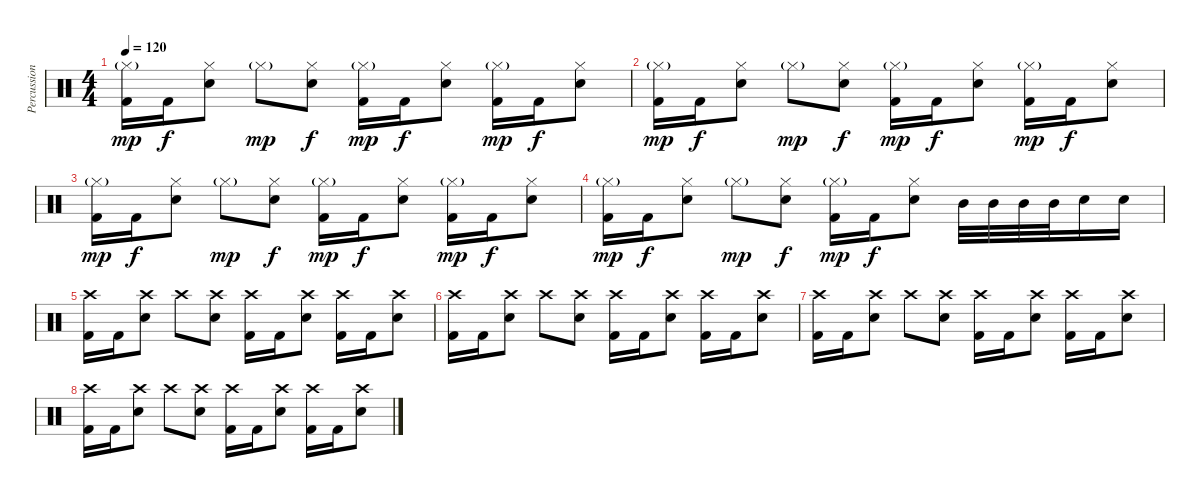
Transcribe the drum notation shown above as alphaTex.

\track ("Percussion" "Percussion") {instrument percussion}
\staff {score}
\articulation defaults
\ts (4 4)
\tempo 120
\clef neutral
\ks c
("Hi-Hat (closed)"{g} "Kick (hit) 2").16{dy mp} "Kick (hit) 2".16{dy f} ("Hi-Hat (closed)" "Electric Snare (hit)").8 "Hi-Hat (closed)"{g}.8{dy mp} ("Hi-Hat (closed)" "Electric Snare (hit)").8{dy f} ("Hi-Hat (closed)"{g} "Kick (hit) 2").16{dy mp} "Kick (hit) 2".16{dy f} ("Hi-Hat (closed)" "Electric Snare (hit)").8 ("Hi-Hat (closed)"{g} "Kick (hit) 2").16{dy mp} "Kick (hit) 2".16{dy f} ("Hi-Hat (closed)" "Electric Snare (hit)").8 |
("Hi-Hat (closed)"{g} "Kick (hit) 2").16{dy mp} "Kick (hit) 2".16{dy f} ("Hi-Hat (closed)" "Electric Snare (hit)").8 "Hi-Hat (closed)"{g}.8{dy mp} ("Hi-Hat (closed)" "Electric Snare (hit)").8{dy f} ("Hi-Hat (closed)"{g} "Kick (hit) 2").16{dy mp} "Kick (hit) 2".16{dy f} ("Hi-Hat (closed)" "Electric Snare (hit)").8 ("Hi-Hat (closed)"{g} "Kick (hit) 2").16{dy mp} "Kick (hit) 2".16{dy f} ("Hi-Hat (closed)" "Electric Snare (hit)").8 |
("Hi-Hat (closed)"{g} "Kick (hit) 2").16{dy mp} "Kick (hit) 2".16{dy f} ("Hi-Hat (closed)" "Electric Snare (hit)").8 "Hi-Hat (closed)"{g}.8{dy mp} ("Hi-Hat (closed)" "Electric Snare (hit)").8{dy f} ("Hi-Hat (closed)"{g} "Kick (hit) 2").16{dy mp} "Kick (hit) 2".16{dy f} ("Hi-Hat (closed)" "Electric Snare (hit)").8 ("Hi-Hat (closed)"{g} "Kick (hit) 2").16{dy mp} "Kick (hit) 2".16{dy f} ("Hi-Hat (closed)" "Electric Snare (hit)").8 |
("Hi-Hat (closed)"{g} "Kick (hit) 2").16{dy mp} "Kick (hit) 2".16{dy f} ("Hi-Hat (closed)" "Electric Snare (hit)").8 "Hi-Hat (closed)"{g}.8{dy mp} ("Hi-Hat (closed)" "Electric Snare (hit)").8{dy f} ("Hi-Hat (closed)"{g} "Kick (hit) 2").16{dy mp} "Kick (hit) 2".16{dy f} ("Hi-Hat (closed)" "Electric Snare (hit)").8 "Mid Tom (hit)".32 "Mid Tom (hit)".32 "Mid Tom (hit)".32 "Mid Tom (hit)".32 "Electric Snare (hit)".16 "Electric Snare (hit)".16 |
("Crash high (hit)" "Kick (hit) 2").16 "Kick (hit) 2".16 ("Crash high (hit)" "Electric Snare (hit)").8 "Crash high (hit)".8 ("Crash high (hit)" "Electric Snare (hit)").8 ("Crash high (hit)" "Kick (hit) 2").16 "Kick (hit) 2".16 ("Crash high (hit)" "Electric Snare (hit)").8 ("Crash high (hit)" "Kick (hit) 2").16 "Kick (hit) 2".16 ("Crash high (hit)" "Electric Snare (hit)").8 |
("Crash high (hit)" "Kick (hit) 2").16 "Kick (hit) 2".16 ("Crash high (hit)" "Electric Snare (hit)").8 "Crash high (hit)".8 ("Crash high (hit)" "Electric Snare (hit)").8 ("Crash high (hit)" "Kick (hit) 2").16 "Kick (hit) 2".16 ("Crash high (hit)" "Electric Snare (hit)").8 ("Crash high (hit)" "Kick (hit) 2").16 "Kick (hit) 2".16 ("Crash high (hit)" "Electric Snare (hit)").8 |
("Crash high (hit)" "Kick (hit) 2").16 "Kick (hit) 2".16 ("Crash high (hit)" "Electric Snare (hit)").8 "Crash high (hit)".8 ("Crash high (hit)" "Electric Snare (hit)").8 ("Crash high (hit)" "Kick (hit) 2").16 "Kick (hit) 2".16 ("Crash high (hit)" "Electric Snare (hit)").8 ("Crash high (hit)" "Kick (hit) 2").16 "Kick (hit) 2".16 ("Crash high (hit)" "Electric Snare (hit)").8 |
("Crash high (hit)" "Kick (hit) 2").16 "Kick (hit) 2".16 ("Crash high (hit)" "Electric Snare (hit)").8 "Crash high (hit)".8 ("Crash high (hit)" "Electric Snare (hit)").8 ("Crash high (hit)" "Kick (hit) 2").16 "Kick (hit) 2".16 ("Crash high (hit)" "Electric Snare (hit)").8 ("Crash high (hit)" "Kick (hit) 2").16 "Kick (hit) 2".16 ("Crash high (hit)" "Electric Snare (hit)").8
